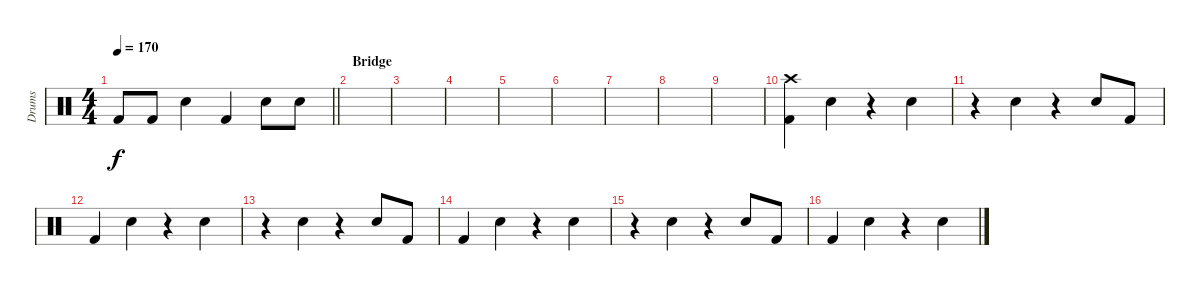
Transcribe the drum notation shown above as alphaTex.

\track ("Drums" "Drums") {instrument percussion}
\staff {score}
\articulation defaults
\ts (4 4)
\tempo 170
\clef neutral
\barLineRight lightlight
\ks c "Kick (hit) 2".8{dy f} "Kick (hit) 2".8 "Hand Clap (hit)".4 "Kick (hit) 2".4 "Hand Clap (hit)".8 "Hand Clap (hit)".8
|
\section ("" "Bridge")
|
|
|
|
|
|
|
|
("Crash high (hit)" "Kick (hit) 2").4 "Hand Clap (hit)".4 r.4 "Hand Clap (hit)".4 |
r.4 "Hand Clap (hit)".4 r.4 "Hand Clap (hit)".8 "Kick (hit) 2".8 |
"Kick (hit) 2".4 "Hand Clap (hit)".4 r.4 "Hand Clap (hit)".4 |
r.4 "Hand Clap (hit)".4 r.4 "Hand Clap (hit)".8 "Kick (hit) 2".8 |
"Kick (hit) 2".4 "Hand Clap (hit)".4 r.4 "Hand Clap (hit)".4 |
r.4 "Hand Clap (hit)".4 r.4 "Hand Clap (hit)".8 "Kick (hit) 2".8 |
"Kick (hit) 2".4 "Hand Clap (hit)".4 r.4 "Hand Clap (hit)".4
